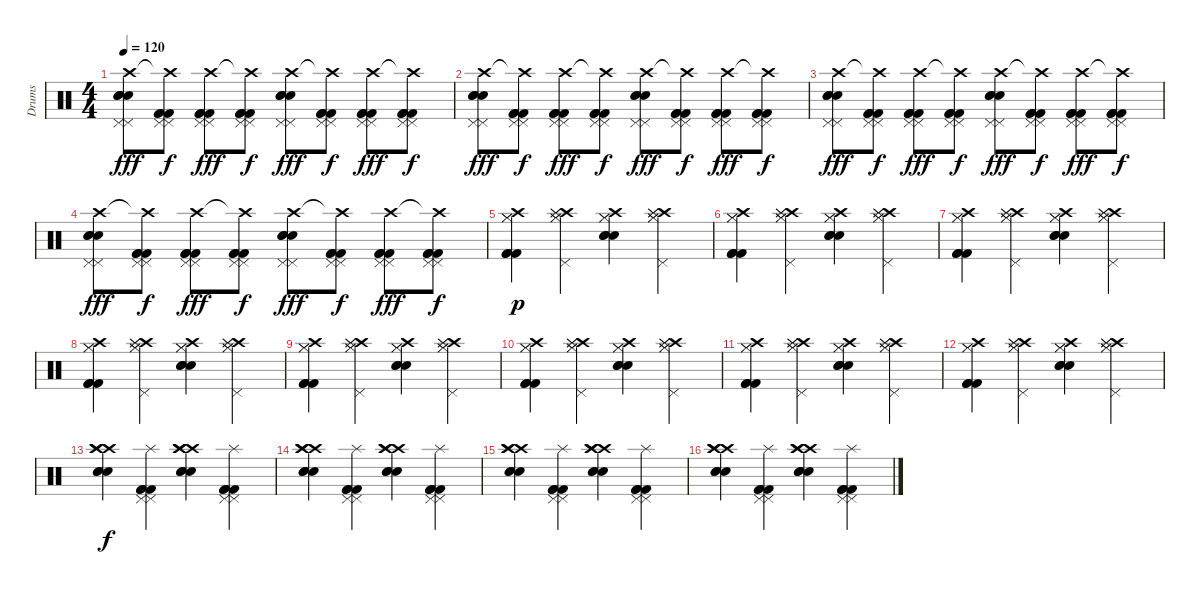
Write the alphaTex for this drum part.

\track ("Drums" "Drums") {instrument percussion}
\staff {score}
\articulation defaults
\ts (4 4)
\tempo 120
\clef neutral
\ks c
("Crash high (hit)" "Pedal Hi-Hat (hit)" "Pedal Hi-Hat (hit)" "Snare (hit) 2" "Snare (hit) 2" "Snare (hit) 2").8{dy fff} ("Crash high (hit)"{t} "Pedal Hi-Hat (hit)" "Pedal Hi-Hat (hit)" "Kick (hit) 2" "Kick (hit) 2" "Kick (hit) 2").8{dy f} ("Crash high (hit)" "Pedal Hi-Hat (hit)" "Pedal Hi-Hat (hit)" "Kick (hit) 2" "Kick (hit) 2" "Kick (hit) 2").8{dy fff} ("Crash high (hit)"{t} "Pedal Hi-Hat (hit)" "Pedal Hi-Hat (hit)" "Kick (hit) 2" "Kick (hit) 2" "Kick (hit) 2").8{dy f} ("Crash high (hit)" "Pedal Hi-Hat (hit)" "Pedal Hi-Hat (hit)" "Snare (hit) 2" "Snare (hit) 2" "Snare (hit) 2").8{dy fff} ("Crash high (hit)"{t} "Pedal Hi-Hat (hit)" "Pedal Hi-Hat (hit)" "Kick (hit) 2" "Kick (hit) 2" "Kick (hit) 2").8{dy f} ("Crash high (hit)" "Pedal Hi-Hat (hit)" "Pedal Hi-Hat (hit)" "Kick (hit) 2" "Kick (hit) 2" "Kick (hit) 2").8{dy fff} ("Crash high (hit)"{t} "Pedal Hi-Hat (hit)" "Pedal Hi-Hat (hit)" "Kick (hit) 2" "Kick (hit) 2" "Kick (hit) 2").8{dy f} |
("Crash high (hit)" "Pedal Hi-Hat (hit)" "Pedal Hi-Hat (hit)" "Snare (hit) 2" "Snare (hit) 2" "Snare (hit) 2").8{dy fff} ("Crash high (hit)"{t} "Pedal Hi-Hat (hit)" "Pedal Hi-Hat (hit)" "Kick (hit) 2" "Kick (hit) 2" "Kick (hit) 2").8{dy f} ("Crash high (hit)" "Pedal Hi-Hat (hit)" "Pedal Hi-Hat (hit)" "Kick (hit) 2" "Kick (hit) 2" "Kick (hit) 2").8{dy fff} ("Crash high (hit)"{t} "Pedal Hi-Hat (hit)" "Pedal Hi-Hat (hit)" "Kick (hit) 2" "Kick (hit) 2" "Kick (hit) 2").8{dy f} ("Crash high (hit)" "Pedal Hi-Hat (hit)" "Pedal Hi-Hat (hit)" "Snare (hit) 2" "Snare (hit) 2" "Snare (hit) 2").8{dy fff} ("Crash high (hit)"{t} "Pedal Hi-Hat (hit)" "Pedal Hi-Hat (hit)" "Kick (hit) 2" "Kick (hit) 2" "Kick (hit) 2").8{dy f} ("Crash high (hit)" "Pedal Hi-Hat (hit)" "Pedal Hi-Hat (hit)" "Kick (hit) 2" "Kick (hit) 2" "Kick (hit) 2").8{dy fff} ("Crash high (hit)"{t} "Pedal Hi-Hat (hit)" "Pedal Hi-Hat (hit)" "Kick (hit) 2" "Kick (hit) 2" "Kick (hit) 2").8{dy f} |
("Crash high (hit)" "Pedal Hi-Hat (hit)" "Pedal Hi-Hat (hit)" "Snare (hit) 2" "Snare (hit) 2" "Snare (hit) 2").8{dy fff} ("Crash high (hit)"{t} "Pedal Hi-Hat (hit)" "Pedal Hi-Hat (hit)" "Kick (hit) 2" "Kick (hit) 2" "Kick (hit) 2").8{dy f} ("Crash high (hit)" "Pedal Hi-Hat (hit)" "Pedal Hi-Hat (hit)" "Kick (hit) 2" "Kick (hit) 2" "Kick (hit) 2").8{dy fff} ("Crash high (hit)"{t} "Pedal Hi-Hat (hit)" "Pedal Hi-Hat (hit)" "Kick (hit) 2" "Kick (hit) 2" "Kick (hit) 2").8{dy f} ("Crash high (hit)" "Pedal Hi-Hat (hit)" "Pedal Hi-Hat (hit)" "Snare (hit) 2" "Snare (hit) 2" "Snare (hit) 2").8{dy fff} ("Crash high (hit)"{t} "Pedal Hi-Hat (hit)" "Pedal Hi-Hat (hit)" "Kick (hit) 2" "Kick (hit) 2" "Kick (hit) 2").8{dy f} ("Crash high (hit)" "Pedal Hi-Hat (hit)" "Pedal Hi-Hat (hit)" "Kick (hit) 2" "Kick (hit) 2" "Kick (hit) 2").8{dy fff} ("Crash high (hit)"{t} "Pedal Hi-Hat (hit)" "Pedal Hi-Hat (hit)" "Kick (hit) 2" "Kick (hit) 2" "Kick (hit) 2").8{dy f} |
("Crash high (hit)" "Pedal Hi-Hat (hit)" "Pedal Hi-Hat (hit)" "Snare (hit) 2" "Snare (hit) 2" "Snare (hit) 2").8{dy fff} ("Crash high (hit)"{t} "Pedal Hi-Hat (hit)" "Pedal Hi-Hat (hit)" "Kick (hit) 2" "Kick (hit) 2" "Kick (hit) 2").8{dy f} ("Crash high (hit)" "Pedal Hi-Hat (hit)" "Pedal Hi-Hat (hit)" "Kick (hit) 2" "Kick (hit) 2" "Kick (hit) 2").8{dy fff} ("Crash high (hit)"{t} "Pedal Hi-Hat (hit)" "Pedal Hi-Hat (hit)" "Kick (hit) 2" "Kick (hit) 2" "Kick (hit) 2").8{dy f} ("Crash high (hit)" "Pedal Hi-Hat (hit)" "Pedal Hi-Hat (hit)" "Snare (hit) 2" "Snare (hit) 2" "Snare (hit) 2").8{dy fff} ("Crash high (hit)"{t} "Pedal Hi-Hat (hit)" "Pedal Hi-Hat (hit)" "Kick (hit) 2" "Kick (hit) 2" "Kick (hit) 2").8{dy f} ("Crash high (hit)" "Pedal Hi-Hat (hit)" "Pedal Hi-Hat (hit)" "Kick (hit) 2" "Kick (hit) 2" "Kick (hit) 2").8{dy fff} ("Crash high (hit)"{t} "Pedal Hi-Hat (hit)" "Pedal Hi-Hat (hit)" "Kick (hit) 2" "Kick (hit) 2" "Kick (hit) 2").8{dy f} |
("Crash high (hit)" "Hi-Hat (closed)" "Hi-Hat (closed)" "Kick (hit) 2" "Kick (hit) 2" "Kick (hit) 2").4{dy p} ("Pedal Hi-Hat (hit)" "Hi-Hat (closed)" "Hi-Hat (closed)" "Crash high (hit)" "Splash (hit)" "Splash (hit)").4 ("Crash high (hit)" "Hi-Hat (closed)" "Hi-Hat (closed)" "Snare (hit) 2" "Snare (hit) 2" "Snare (hit) 2").4 ("Pedal Hi-Hat (hit)" "Hi-Hat (closed)" "Hi-Hat (closed)" "Crash high (hit)" "Splash (hit)" "Splash (hit)").4 |
("Crash high (hit)" "Hi-Hat (closed)" "Hi-Hat (closed)" "Kick (hit) 2" "Kick (hit) 2" "Kick (hit) 2").4 ("Pedal Hi-Hat (hit)" "Hi-Hat (closed)" "Hi-Hat (closed)" "Crash high (hit)" "Splash (hit)" "Splash (hit)").4 ("Crash high (hit)" "Hi-Hat (closed)" "Hi-Hat (closed)" "Snare (hit) 2" "Snare (hit) 2" "Snare (hit) 2").4 ("Pedal Hi-Hat (hit)" "Hi-Hat (closed)" "Hi-Hat (closed)" "Crash high (hit)" "Splash (hit)" "Splash (hit)").4 |
("Crash high (hit)" "Hi-Hat (closed)" "Hi-Hat (closed)" "Kick (hit) 2" "Kick (hit) 2" "Kick (hit) 2").4 ("Pedal Hi-Hat (hit)" "Hi-Hat (closed)" "Hi-Hat (closed)" "Crash high (hit)" "Splash (hit)" "Splash (hit)").4 ("Crash high (hit)" "Hi-Hat (closed)" "Hi-Hat (closed)" "Snare (hit) 2" "Snare (hit) 2" "Snare (hit) 2").4 ("Pedal Hi-Hat (hit)" "Hi-Hat (closed)" "Hi-Hat (closed)" "Crash high (hit)" "Splash (hit)" "Splash (hit)").4 |
("Crash high (hit)" "Hi-Hat (closed)" "Hi-Hat (closed)" "Kick (hit) 2" "Kick (hit) 2" "Kick (hit) 2").4 ("Pedal Hi-Hat (hit)" "Hi-Hat (closed)" "Hi-Hat (closed)" "Crash high (hit)" "Splash (hit)" "Splash (hit)").4 ("Crash high (hit)" "Hi-Hat (closed)" "Hi-Hat (closed)" "Snare (hit) 2" "Snare (hit) 2" "Snare (hit) 2").4 ("Pedal Hi-Hat (hit)" "Hi-Hat (closed)" "Hi-Hat (closed)" "Crash high (hit)" "Splash (hit)" "Splash (hit)").4 |
("Crash high (hit)" "Hi-Hat (closed)" "Hi-Hat (closed)" "Kick (hit) 2" "Kick (hit) 2" "Kick (hit) 2").4 ("Pedal Hi-Hat (hit)" "Hi-Hat (closed)" "Hi-Hat (closed)" "Crash high (hit)" "Splash (hit)" "Splash (hit)").4 ("Crash high (hit)" "Hi-Hat (closed)" "Hi-Hat (closed)" "Snare (hit) 2" "Snare (hit) 2" "Snare (hit) 2").4 ("Pedal Hi-Hat (hit)" "Hi-Hat (closed)" "Hi-Hat (closed)" "Crash high (hit)" "Splash (hit)" "Splash (hit)").4 |
("Crash high (hit)" "Hi-Hat (closed)" "Hi-Hat (closed)" "Kick (hit) 2" "Kick (hit) 2" "Kick (hit) 2").4 ("Pedal Hi-Hat (hit)" "Hi-Hat (closed)" "Hi-Hat (closed)" "Crash high (hit)" "Splash (hit)" "Splash (hit)").4 ("Crash high (hit)" "Hi-Hat (closed)" "Hi-Hat (closed)" "Snare (hit) 2" "Snare (hit) 2" "Snare (hit) 2").4 ("Pedal Hi-Hat (hit)" "Hi-Hat (closed)" "Hi-Hat (closed)" "Crash high (hit)" "Splash (hit)" "Splash (hit)").4 |
("Crash high (hit)" "Hi-Hat (closed)" "Hi-Hat (closed)" "Kick (hit) 2" "Kick (hit) 2" "Kick (hit) 2").4 ("Pedal Hi-Hat (hit)" "Hi-Hat (closed)" "Hi-Hat (closed)" "Crash high (hit)" "Splash (hit)" "Splash (hit)").4 ("Crash high (hit)" "Hi-Hat (closed)" "Hi-Hat (closed)" "Snare (hit) 2" "Snare (hit) 2" "Snare (hit) 2").4 ("Pedal Hi-Hat (hit)" "Hi-Hat (closed)" "Hi-Hat (closed)" "Crash high (hit)" "Splash (hit)" "Splash (hit)").4 |
("Crash high (hit)" "Hi-Hat (closed)" "Hi-Hat (closed)" "Kick (hit) 2" "Kick (hit) 2" "Kick (hit) 2").4 ("Pedal Hi-Hat (hit)" "Hi-Hat (closed)" "Hi-Hat (closed)" "Crash high (hit)" "Splash (hit)" "Splash (hit)").4 ("Crash high (hit)" "Hi-Hat (closed)" "Hi-Hat (closed)" "Snare (hit) 2" "Snare (hit) 2" "Snare (hit) 2").4 ("Pedal Hi-Hat (hit)" "Hi-Hat (closed)" "Hi-Hat (closed)" "Crash high (hit)" "Splash (hit)" "Splash (hit)").4 |
("Crash high (hit)" "Crash high (hit)" "Crash high (hit)" "Snare (hit) 2" "Snare (hit) 2" "Snare (hit) 2").4{dy f} ("Pedal Hi-Hat (hit)" "Pedal Hi-Hat (hit)" "Splash (hit)" "Kick (hit) 2" "Kick (hit) 2" "Kick (hit) 2").4 ("Crash high (hit)" "Crash high (hit)" "Crash high (hit)" "Snare (hit) 2" "Snare (hit) 2" "Snare (hit) 2").4 ("Pedal Hi-Hat (hit)" "Pedal Hi-Hat (hit)" "Splash (hit)" "Kick (hit) 2" "Kick (hit) 2" "Kick (hit) 2").4 |
("Crash high (hit)" "Crash high (hit)" "Crash high (hit)" "Snare (hit) 2" "Snare (hit) 2" "Snare (hit) 2").4 ("Pedal Hi-Hat (hit)" "Pedal Hi-Hat (hit)" "Splash (hit)" "Kick (hit) 2" "Kick (hit) 2" "Kick (hit) 2").4 ("Crash high (hit)" "Crash high (hit)" "Crash high (hit)" "Snare (hit) 2" "Snare (hit) 2" "Snare (hit) 2").4 ("Pedal Hi-Hat (hit)" "Pedal Hi-Hat (hit)" "Splash (hit)" "Kick (hit) 2" "Kick (hit) 2" "Kick (hit) 2").4 |
("Crash high (hit)" "Crash high (hit)" "Crash high (hit)" "Snare (hit) 2" "Snare (hit) 2" "Snare (hit) 2").4 ("Pedal Hi-Hat (hit)" "Pedal Hi-Hat (hit)" "Splash (hit)" "Kick (hit) 2" "Kick (hit) 2" "Kick (hit) 2").4 ("Crash high (hit)" "Crash high (hit)" "Crash high (hit)" "Snare (hit) 2" "Snare (hit) 2" "Snare (hit) 2").4 ("Pedal Hi-Hat (hit)" "Pedal Hi-Hat (hit)" "Splash (hit)" "Kick (hit) 2" "Kick (hit) 2" "Kick (hit) 2").4 |
("Crash high (hit)" "Crash high (hit)" "Crash high (hit)" "Snare (hit) 2" "Snare (hit) 2" "Snare (hit) 2").4 ("Pedal Hi-Hat (hit)" "Pedal Hi-Hat (hit)" "Splash (hit)" "Kick (hit) 2" "Kick (hit) 2" "Kick (hit) 2").4 ("Crash high (hit)" "Crash high (hit)" "Crash high (hit)" "Snare (hit) 2" "Snare (hit) 2" "Snare (hit) 2").4 ("Pedal Hi-Hat (hit)" "Pedal Hi-Hat (hit)" "Splash (hit)" "Kick (hit) 2" "Kick (hit) 2" "Kick (hit) 2").4
